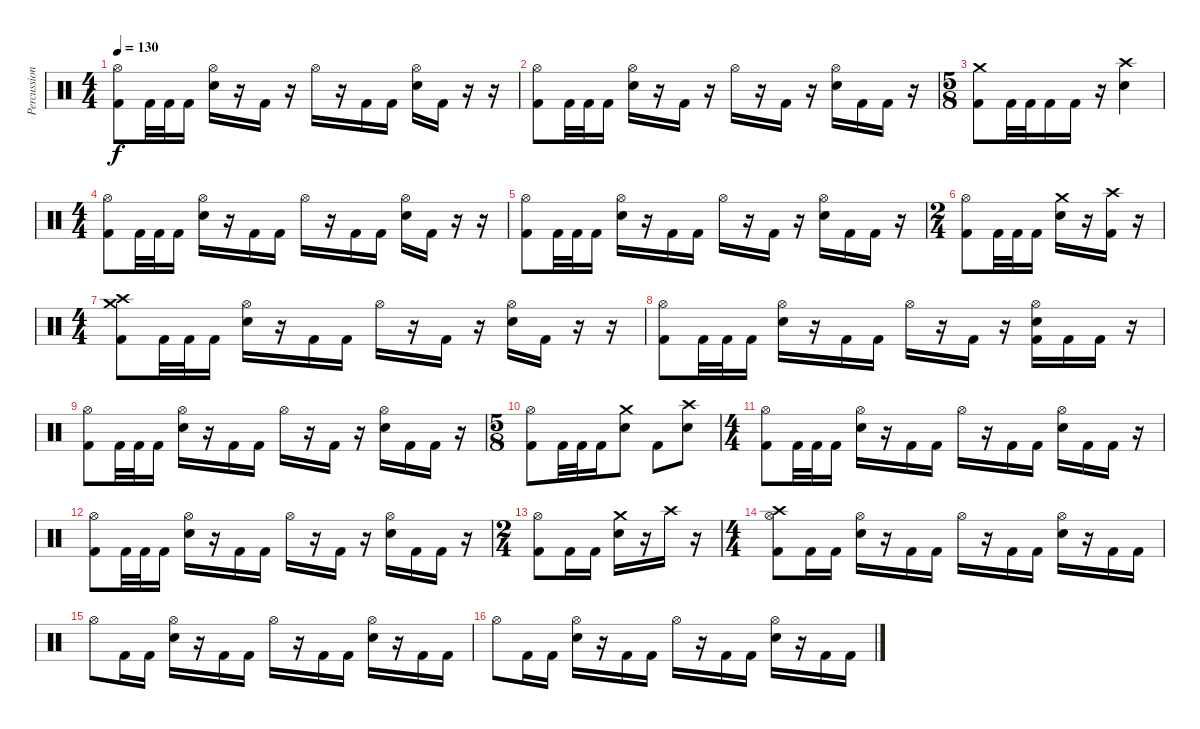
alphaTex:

\track ("Percussion" "Percussion") {instrument percussion}
\staff {score}
\articulation defaults
\ts (4 4)
\tempo 130
\clef neutral
\ks c
("Hi-Hat (open)" "Kick (hit) 2").8{dy f} "Kick (hit) 2".32 "Kick (hit) 2".32 "Kick (hit) 2".16 ("Hi-Hat (open)" "Electric Snare (hit)").16 r.16 "Kick (hit) 2".16 r.16 "Hi-Hat (open)".16 r.16 "Kick (hit) 2".16 "Kick (hit) 2".16 ("Hi-Hat (open)" "Electric Snare (hit)").16 "Kick (hit) 2".16 r.16 r.16 |
("Hi-Hat (open)" "Kick (hit) 2").8 "Kick (hit) 2".32 "Kick (hit) 2".32 "Kick (hit) 2".16 ("Hi-Hat (open)" "Electric Snare (hit)").16 r.16 "Kick (hit) 2".16 r.16 "Hi-Hat (open)".16 r.16 "Kick (hit) 2".16 r.16 ("Hi-Hat (open)" "Electric Snare (hit)").16 "Kick (hit) 2".16 "Kick (hit) 2".16 r.16 |
\ts (5 8)
("Crash medium (hit)" "Kick (hit) 2").8 "Kick (hit) 2".32 "Kick (hit) 2".32 "Kick (hit) 2".16 "Kick (hit) 2".16 r.16 ("Crash high (hit)" "Electric Snare (hit)").4 |
\ts (4 4)
("Hi-Hat (open)" "Kick (hit) 2").8 "Kick (hit) 2".32 "Kick (hit) 2".32 "Kick (hit) 2".16 ("Hi-Hat (open)" "Electric Snare (hit)").16 r.16 "Kick (hit) 2".16 "Kick (hit) 2".16 "Hi-Hat (open)".16 r.16 "Kick (hit) 2".16 "Kick (hit) 2".16 ("Hi-Hat (open)" "Electric Snare (hit)").16 "Kick (hit) 2".16 r.16 r.16 |
("Hi-Hat (open)" "Kick (hit) 2").8 "Kick (hit) 2".32 "Kick (hit) 2".32 "Kick (hit) 2".16 ("Hi-Hat (open)" "Electric Snare (hit)").16 r.16 "Kick (hit) 2".16 "Kick (hit) 2".16 "Hi-Hat (open)".16 r.16 "Kick (hit) 2".16 r.16 ("Hi-Hat (open)" "Electric Snare (hit)").16 "Kick (hit) 2".16 "Kick (hit) 2".16 r.16 |
\ts (2 4)
("Hi-Hat (open)" "Kick (hit) 2").8 "Kick (hit) 2".32 "Kick (hit) 2".32 "Kick (hit) 2".16 ("Crash medium (hit)" "Electric Snare (hit)").16 r.16 ("Crash high (hit)" "Kick (hit) 2").16 r.16 |
\ts (4 4)
("Crash high (hit)" "Crash medium (hit)" "Kick (hit) 2").8 "Kick (hit) 2".32 "Kick (hit) 2".32 "Kick (hit) 2".16 ("Hi-Hat (open)" "Electric Snare (hit)").16 r.16 "Kick (hit) 2".16 "Kick (hit) 2".16 "Hi-Hat (open)".16 r.16 "Kick (hit) 2".16 r.16 ("Hi-Hat (open)" "Electric Snare (hit)").16 "Kick (hit) 2".16 r.16 r.16 |
("Hi-Hat (open)" "Kick (hit) 2").8 "Kick (hit) 2".32 "Kick (hit) 2".32 "Kick (hit) 2".16 ("Hi-Hat (open)" "Electric Snare (hit)").16 r.16 "Kick (hit) 2".16 "Kick (hit) 2".16 "Hi-Hat (open)".16 r.16 "Kick (hit) 2".16 r.16 ("Hi-Hat (open)" "Electric Snare (hit)" "Kick (hit) 2").16 "Kick (hit) 2".16 "Kick (hit) 2".16 r.16 |
("Hi-Hat (open)" "Kick (hit) 2").8 "Kick (hit) 2".32 "Kick (hit) 2".32 "Kick (hit) 2".16 ("Hi-Hat (open)" "Electric Snare (hit)").16 r.16 "Kick (hit) 2".16 "Kick (hit) 2".16 "Hi-Hat (open)".16 r.16 "Kick (hit) 2".16 r.16 ("Hi-Hat (open)" "Electric Snare (hit)").16 "Kick (hit) 2".16 "Kick (hit) 2".16 r.16 |
\ts (5 8)
("Hi-Hat (open)" "Kick (hit) 2").8 "Kick (hit) 2".32 "Kick (hit) 2".32 "Kick (hit) 2".16 ("Crash medium (hit)" "Electric Snare (hit)").8 "Kick (hit) 2".8 ("Crash high (hit)" "Electric Snare (hit)").8 |
\ts (4 4)
("Hi-Hat (open)" "Kick (hit) 2").8 "Kick (hit) 2".32 "Kick (hit) 2".32 "Kick (hit) 2".16 ("Hi-Hat (open)" "Electric Snare (hit)").16 r.16 "Kick (hit) 2".16 "Kick (hit) 2".16 "Hi-Hat (open)".16 r.16 "Kick (hit) 2".16 "Kick (hit) 2".16 ("Hi-Hat (open)" "Electric Snare (hit)").16 "Kick (hit) 2".16 "Kick (hit) 2".16 r.16 |
("Hi-Hat (open)" "Kick (hit) 2").8 "Kick (hit) 2".32 "Kick (hit) 2".32 "Kick (hit) 2".16 ("Hi-Hat (open)" "Electric Snare (hit)").16 r.16 "Kick (hit) 2".16 "Kick (hit) 2".16 "Hi-Hat (open)".16 r.16 "Kick (hit) 2".16 r.16 ("Hi-Hat (open)" "Electric Snare (hit)").16 "Kick (hit) 2".16 "Kick (hit) 2".16 r.16 |
\ts (2 4)
("Hi-Hat (open)" "Kick (hit) 2").8 "Kick (hit) 2".16 "Kick (hit) 2".16 ("Crash medium (hit)" "Electric Snare (hit)").16 r.16 "Crash high (hit)".16 r.16 |
\ts (4 4)
("Crash high (hit)" "Hi-Hat (open)" "Kick (hit) 2").8 "Kick (hit) 2".16 "Kick (hit) 2".16 ("Hi-Hat (open)" "Electric Snare (hit)").16 r.16 "Kick (hit) 2".16 "Kick (hit) 2".16 "Hi-Hat (open)".16 r.16 "Kick (hit) 2".16 "Kick (hit) 2".16 ("Hi-Hat (open)" "Electric Snare (hit)").16 r.16 "Kick (hit) 2".16 "Kick (hit) 2".16 |
"Hi-Hat (open)".8 "Kick (hit) 2".16 "Kick (hit) 2".16 ("Hi-Hat (open)" "Electric Snare (hit)").16 r.16 "Kick (hit) 2".16 "Kick (hit) 2".16 "Hi-Hat (open)".16 r.16 "Kick (hit) 2".16 "Kick (hit) 2".16 ("Hi-Hat (open)" "Electric Snare (hit)").16 r.16 "Kick (hit) 2".16 "Kick (hit) 2".16 |
"Hi-Hat (open)".8 "Kick (hit) 2".16 "Kick (hit) 2".16 ("Hi-Hat (open)" "Electric Snare (hit)").16 r.16 "Kick (hit) 2".16 "Kick (hit) 2".16 "Hi-Hat (open)".16 r.16 "Kick (hit) 2".16 "Kick (hit) 2".16 ("Hi-Hat (open)" "Electric Snare (hit)").16 r.16 "Kick (hit) 2".16 "Kick (hit) 2".16
